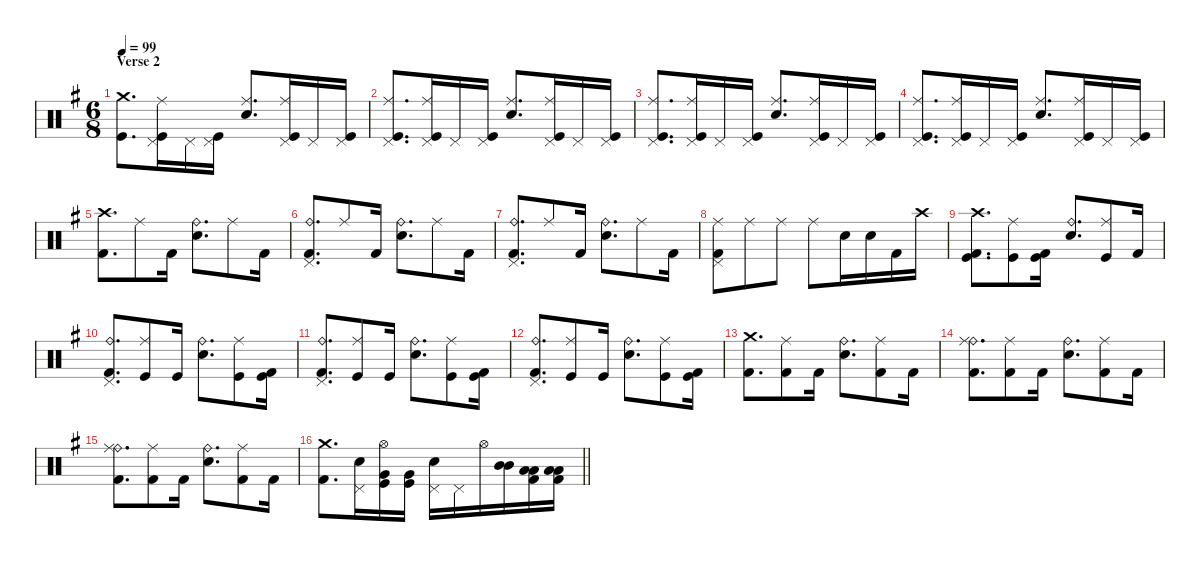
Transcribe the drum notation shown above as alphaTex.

\defaultSystemsLayout 4
\hideDynamics
\bracketExtendMode nobrackets
\singleTrackTrackNamePolicy hidden
\multiTrackTrackNamePolicy hidden
\otherSystemsTrackNameOrientation horizontal
\track ("Dave Abbruzzese" "drm.") {defaultSystemsLayout 4 instrument percussion}
\staff {score}
\articulation defaults
\ts (6 8)
\section ("" "Verse 2")
\tempo 99
\clef neutral
\ks g
("Crash medium (hit)"{acc forcenatural} "Kick (hit)"{acc forcenatural}).8{d dy fff beam Down} ("Pedal Hi-Hat (hit)"{acc forcenatural} "Ride (middle)"{acc forcenatural} "Kick (hit)"{acc forcenatural}).16{dy mp beam Down} "Pedal Hi-Hat (hit)"{acc forcenatural}.16{beam Down} ("Pedal Hi-Hat (hit)"{acc forcenatural} "Kick (hit)"{acc forcenatural}).16{beam Down} ("Ride (middle)"{acc forcenatural} "Snare (hit) 2"{acc forcenatural}).8{d beam Up} ("Pedal Hi-Hat (hit)"{acc forcenatural} "Ride (middle)"{acc forcenatural} "Kick (hit)"{acc forcenatural}).16{beam Up} "Pedal Hi-Hat (hit)"{acc forcenatural}.16{beam Up} ("Pedal Hi-Hat (hit)"{acc forcenatural} "Kick (hit)"{acc forcenatural}).16{beam Up} |
("Ride (middle)"{acc forcenatural} "Pedal Hi-Hat (hit)"{acc forcenatural} "Kick (hit)"{acc forcenatural}).8{d beam Up} ("Pedal Hi-Hat (hit)"{acc forcenatural} "Ride (middle)"{acc forcenatural} "Kick (hit)"{acc forcenatural}).16{beam Up} "Pedal Hi-Hat (hit)"{acc forcenatural}.16{beam Up} ("Pedal Hi-Hat (hit)"{acc forcenatural} "Kick (hit)"{acc forcenatural}).16{beam Up} ("Ride (middle)"{acc forcenatural} "Snare (hit) 2"{acc forcenatural}).8{d beam Up} ("Pedal Hi-Hat (hit)"{acc forcenatural} "Ride (middle)"{acc forcenatural} "Kick (hit)"{acc forcenatural}).16{beam Up} "Pedal Hi-Hat (hit)"{acc forcenatural}.16{beam Up} ("Pedal Hi-Hat (hit)"{acc forcenatural} "Kick (hit)"{acc forcenatural}).16{beam Up} |
("Ride (middle)"{acc forcenatural} "Pedal Hi-Hat (hit)"{acc forcenatural} "Kick (hit)"{acc forcenatural}).8{d beam Up} ("Pedal Hi-Hat (hit)"{acc forcenatural} "Ride (middle)"{acc forcenatural} "Kick (hit)"{acc forcenatural}).16{beam Up} "Pedal Hi-Hat (hit)"{acc forcenatural}.16{beam Up} ("Pedal Hi-Hat (hit)"{acc forcenatural} "Kick (hit)"{acc forcenatural}).16{beam Up} ("Ride (middle)"{acc forcenatural} "Snare (hit) 2"{acc forcenatural}).8{d beam Up} ("Pedal Hi-Hat (hit)"{acc forcenatural} "Ride (middle)"{acc forcenatural} "Kick (hit)"{acc forcenatural}).16{beam Up} "Pedal Hi-Hat (hit)"{acc forcenatural}.16{beam Up} ("Pedal Hi-Hat (hit)"{acc forcenatural} "Kick (hit)"{acc forcenatural}).16{beam Up} |
("Ride (middle)"{acc forcenatural} "Pedal Hi-Hat (hit)"{acc forcenatural} "Kick (hit)"{acc forcenatural}).8{d beam Up} ("Pedal Hi-Hat (hit)"{acc forcenatural} "Ride (middle)"{acc forcenatural} "Kick (hit)"{acc forcenatural}).16{beam Up} "Pedal Hi-Hat (hit)"{acc forcenatural}.16{beam Up} ("Pedal Hi-Hat (hit)"{acc forcenatural} "Kick (hit)"{acc forcenatural}).16{beam Up} ("Ride (middle)"{acc forcenatural} "Snare (hit) 2"{acc forcenatural}).8{d beam Up} ("Pedal Hi-Hat (hit)"{acc forcenatural} "Ride (middle)"{acc forcenatural} "Kick (hit)"{acc forcenatural}).16{beam Up} "Pedal Hi-Hat (hit)"{acc forcenatural}.16{beam Up} ("Pedal Hi-Hat (hit)"{acc forcenatural} "Kick (hit)"{acc forcenatural}).16{beam Up} |
("Crash high (hit)"{acc forcenatural} "Kick (hit) 2"{acc forcenatural}).8{d dy f beam Down} "Ride (middle)"{acc forcenatural}.8{beam Down} "Kick (hit) 2"{acc forcenatural}.16{beam Down} ("Ride (bell)"{acc forcenatural} "Snare (hit) 2"{acc forcenatural}).8{d beam Down} "Ride (middle)"{acc forcenatural}.8{beam Down} "Kick (hit) 2"{acc forcenatural}.16{beam Down} |
("Ride (bell)"{acc forcenatural} "Pedal Hi-Hat (hit)"{acc forcenatural} "Kick (hit) 2"{acc forcenatural}).8{d beam Up} "Ride (middle)"{acc forcenatural}.8{beam Up} "Kick (hit) 2"{acc forcenatural}.16{beam Up} ("Ride (bell)"{acc forcenatural} "Snare (hit) 2"{acc forcenatural}).8{d beam Down} "Ride (middle)"{acc forcenatural}.8{beam Down} "Kick (hit) 2"{acc forcenatural}.16{beam Down} |
("Ride (bell)"{acc forcenatural} "Pedal Hi-Hat (hit)"{acc forcenatural} "Kick (hit) 2"{acc forcenatural}).8{d beam Up} "Ride (middle)"{acc forcenatural}.8{beam Up} "Kick (hit) 2"{acc forcenatural}.16{beam Up} ("Ride (bell)"{acc forcenatural} "Snare (hit) 2"{acc forcenatural}).8{d beam Down} "Ride (middle)"{acc forcenatural}.8{beam Down} "Kick (hit) 2"{acc forcenatural}.16{beam Down} |
("Ride (middle)"{acc forcenatural} "Pedal Hi-Hat (hit)"{acc forcenatural} "Kick (hit) 2"{acc forcenatural}).8{beam Down} "Ride (middle)"{acc forcenatural}.8{beam Down} "Ride (middle)"{acc forcenatural}.8{beam Down} "Ride (middle)"{acc forcenatural}.8{beam Down} "Snare (hit) 2"{acc forcenatural}.16{beam Down} "Snare (hit) 2"{acc forcenatural}.16{beam Down} "Kick (hit) 2"{acc forcenatural}.16{beam Down} "Crash high (hit)"{acc forcenatural}.16{beam Down} |
("Crash high (hit)"{acc forcenatural} "Kick (hit)"{acc forcenatural} "Kick (hit) 2"{acc forcenatural}).8{d beam Down} ("Ride (middle)"{acc forcenatural} "Kick (hit)"{acc forcenatural}).8{dy mp beam Down} ("Kick (hit)"{acc forcenatural} "Kick (hit) 2"{acc forcenatural}).16{dy fff beam Down} ("Ride (bell)"{acc forcenatural} "Snare (hit) 2"{acc forcenatural}).8{d dy mp beam Up} ("Ride (middle)"{acc forcenatural} "Kick (hit)"{acc forcenatural}).8{beam Up} "Kick (hit) 2"{acc forcenatural}.16{dy f beam Up} |
("Ride (bell)"{acc forcenatural} "Pedal Hi-Hat (hit)"{acc forcenatural} "Kick (hit) 2"{acc forcenatural}).8{d dy mp beam Up} ("Ride (middle)"{acc forcenatural} "Kick (hit)"{acc forcenatural}).8{beam Up} "Kick (hit)"{acc forcenatural}.16{dy fff beam Up} ("Ride (bell)"{acc forcenatural} "Snare (hit) 2"{acc forcenatural}).8{d dy mp beam Down} ("Ride (middle)"{acc forcenatural} "Kick (hit)"{acc forcenatural}).8{beam Down} ("Kick (hit)"{acc forcenatural} "Kick (hit) 2"{acc forcenatural}).16{dy fff beam Down} |
("Ride (bell)"{acc forcenatural} "Pedal Hi-Hat (hit)"{acc forcenatural} "Kick (hit) 2"{acc forcenatural}).8{d dy mp beam Up} ("Ride (middle)"{acc forcenatural} "Kick (hit)"{acc forcenatural}).8{beam Up} "Kick (hit)"{acc forcenatural}.16{dy fff beam Up} ("Ride (bell)"{acc forcenatural} "Snare (hit) 2"{acc forcenatural}).8{d dy mp beam Down} ("Ride (middle)"{acc forcenatural} "Kick (hit)"{acc forcenatural}).8{beam Down} ("Kick (hit)"{acc forcenatural} "Kick (hit) 2"{acc forcenatural}).16{dy fff beam Down} |
("Ride (bell)"{acc forcenatural} "Pedal Hi-Hat (hit)"{acc forcenatural} "Kick (hit) 2"{acc forcenatural}).8{d dy mp beam Up} ("Ride (middle)"{acc forcenatural} "Kick (hit)"{acc forcenatural}).8{beam Up} "Kick (hit)"{acc forcenatural}.16{dy fff beam Up} ("Ride (bell)"{acc forcenatural} "Snare (hit) 2"{acc forcenatural}).8{d dy mp beam Down} ("Ride (middle)"{acc forcenatural} "Kick (hit)"{acc forcenatural}).8{beam Down} ("Kick (hit)"{acc forcenatural} "Kick (hit) 2"{acc forcenatural}).16{dy fff beam Down} |
("Crash medium (hit)"{acc forcenatural} "Kick (hit) 2"{acc forcenatural}).8{d dy f beam Down} ("Ride (middle)"{acc forcenatural} "Kick (hit) 2"{acc forcenatural}).8{beam Down} "Kick (hit) 2"{acc forcenatural}.16{beam Down} ("Ride (bell)"{acc forcenatural} "Snare (hit) 2"{acc forcenatural}).8{d beam Down} ("Ride (middle)"{acc forcenatural} "Kick (hit) 2"{acc forcenatural}).8{beam Down} "Kick (hit) 2"{acc forcenatural}.16{beam Down} |
("Ride (bell)"{acc forcenatural} "Ride (middle)"{acc forcenatural} "Kick (hit) 2"{acc forcenatural}).8{d beam Down} ("Ride (middle)"{acc forcenatural} "Kick (hit) 2"{acc forcenatural}).8{beam Down} "Kick (hit) 2"{acc forcenatural}.16{beam Down} ("Ride (bell)"{acc forcenatural} "Snare (hit) 2"{acc forcenatural}).8{d beam Down} ("Ride (middle)"{acc forcenatural} "Kick (hit) 2"{acc forcenatural}).8{beam Down} "Kick (hit) 2"{acc forcenatural}.16{beam Down} |
("Ride (bell)"{acc forcenatural} "Ride (middle)"{acc forcenatural} "Kick (hit) 2"{acc forcenatural}).8{d beam Down} ("Ride (middle)"{acc forcenatural} "Kick (hit) 2"{acc forcenatural}).8{beam Down} "Kick (hit) 2"{acc forcenatural}.16{beam Down} ("Ride (bell)"{acc forcenatural} "Snare (hit) 2"{acc forcenatural}).8{d beam Down} ("Ride (middle)"{acc forcenatural} "Kick (hit) 2"{acc forcenatural}).8{beam Down} "Kick (hit) 2"{acc forcenatural}.16{beam Down} |
\barLineRight lightlight
("Crash medium (hit)"{acc forcenatural} "Kick (hit) 2"{acc forcenatural}).8{d beam Down} ("Pedal Hi-Hat (hit)"{acc forcenatural} "Snare (hit) 2"{acc forcenatural}).16{dy p beam Down} ("Hi-Hat (open)"{acc forcenatural} "Very Low Tom (hit)"{acc forcenatural} "Kick (hit)"{acc forcenatural}).16{dy f beam Down} ("Very Low Tom (hit)"{acc forcenatural} "Kick (hit)"{acc forcenatural}).16{beam Down} ("Pedal Hi-Hat (hit)"{acc forcenatural} "Snare (hit) 2"{acc forcenatural}).16{dy p beam Down} "Pedal Hi-Hat (hit)"{acc forcenatural}.16{beam Down} "Hi-Hat (open)"{acc forcenatural}.16{dy f beam Down} ("Mid Tom (hit)"{acc forcenatural} "Mid Tom (hit)"{acc forcenatural}).16{beam Down} ("Low Tom (hit)"{acc forcenatural} "Low Tom (hit)"{acc forcenatural} "Kick (hit) 2"{acc forcenatural}).16{beam Down} ("Low Floor Tom (hit)"{acc forcenatural} "Low Floor Tom (hit)"{acc forcenatural} "Kick (hit) 2"{acc forcenatural}).16{beam Down}
